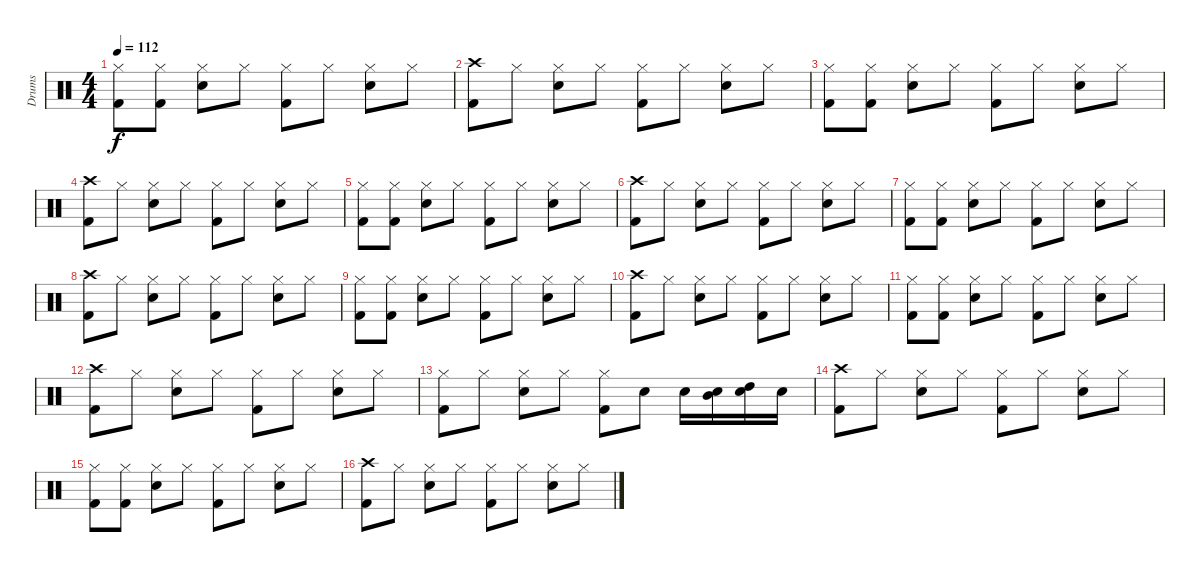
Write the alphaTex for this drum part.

\track ("Drums" "Drums") {instrument percussion}
\staff {score}
\articulation defaults
\ts (4 4)
\tempo 112
\clef neutral
\ks c
("Hi-Hat (closed)" "Kick (hit) 2").8{dy f} ("Hi-Hat (closed)" "Kick (hit) 2").8 ("Hi-Hat (closed)" "Electric Snare (hit)").8 "Hi-Hat (closed)".8 ("Hi-Hat (closed)" "Kick (hit) 2").8 "Hi-Hat (closed)".8 ("Hi-Hat (closed)" "Electric Snare (hit)").8 "Hi-Hat (closed)".8 |
("Crash high (hit)" "Kick (hit) 2").8 "Hi-Hat (closed)".8 ("Hi-Hat (closed)" "Electric Snare (hit)").8 "Hi-Hat (closed)".8 ("Hi-Hat (closed)" "Kick (hit) 2").8 "Hi-Hat (closed)".8 ("Hi-Hat (closed)" "Electric Snare (hit)").8 "Hi-Hat (closed)".8 |
("Hi-Hat (closed)" "Kick (hit) 2").8 ("Hi-Hat (closed)" "Kick (hit) 2").8 ("Hi-Hat (closed)" "Electric Snare (hit)").8 "Hi-Hat (closed)".8 ("Hi-Hat (closed)" "Kick (hit) 2").8 "Hi-Hat (closed)".8 ("Hi-Hat (closed)" "Electric Snare (hit)").8 "Hi-Hat (closed)".8 |
("Crash high (hit)" "Kick (hit) 2").8 "Hi-Hat (closed)".8 ("Hi-Hat (closed)" "Electric Snare (hit)").8 "Hi-Hat (closed)".8 ("Hi-Hat (closed)" "Kick (hit) 2").8 "Hi-Hat (closed)".8 ("Hi-Hat (closed)" "Electric Snare (hit)").8 "Hi-Hat (closed)".8 |
("Hi-Hat (closed)" "Kick (hit) 2").8 ("Hi-Hat (closed)" "Kick (hit) 2").8 ("Hi-Hat (closed)" "Electric Snare (hit)").8 "Hi-Hat (closed)".8 ("Hi-Hat (closed)" "Kick (hit) 2").8 "Hi-Hat (closed)".8 ("Hi-Hat (closed)" "Electric Snare (hit)").8 "Hi-Hat (closed)".8 |
("Crash high (hit)" "Kick (hit) 2").8 "Hi-Hat (closed)".8 ("Hi-Hat (closed)" "Electric Snare (hit)").8 "Hi-Hat (closed)".8 ("Hi-Hat (closed)" "Kick (hit) 2").8 "Hi-Hat (closed)".8 ("Hi-Hat (closed)" "Electric Snare (hit)").8 "Hi-Hat (closed)".8 |
("Hi-Hat (closed)" "Kick (hit) 2").8 ("Hi-Hat (closed)" "Kick (hit) 2").8 ("Hi-Hat (closed)" "Electric Snare (hit)").8 "Hi-Hat (closed)".8 ("Hi-Hat (closed)" "Kick (hit) 2").8 "Hi-Hat (closed)".8 ("Hi-Hat (closed)" "Electric Snare (hit)").8 "Hi-Hat (closed)".8 |
("Crash high (hit)" "Kick (hit) 2").8 "Hi-Hat (closed)".8 ("Hi-Hat (closed)" "Electric Snare (hit)").8 "Hi-Hat (closed)".8 ("Hi-Hat (closed)" "Kick (hit) 2").8 "Hi-Hat (closed)".8 ("Hi-Hat (closed)" "Electric Snare (hit)").8 "Hi-Hat (closed)".8 |
("Hi-Hat (closed)" "Kick (hit) 2").8 ("Hi-Hat (closed)" "Kick (hit) 2").8 ("Hi-Hat (closed)" "Electric Snare (hit)").8 "Hi-Hat (closed)".8 ("Hi-Hat (closed)" "Kick (hit) 2").8 "Hi-Hat (closed)".8 ("Hi-Hat (closed)" "Electric Snare (hit)").8 "Hi-Hat (closed)".8 |
("Crash high (hit)" "Kick (hit) 2").8 "Hi-Hat (closed)".8 ("Hi-Hat (closed)" "Electric Snare (hit)").8 "Hi-Hat (closed)".8 ("Hi-Hat (closed)" "Kick (hit) 2").8 "Hi-Hat (closed)".8 ("Hi-Hat (closed)" "Electric Snare (hit)").8 "Hi-Hat (closed)".8 |
("Hi-Hat (closed)" "Kick (hit) 2").8 ("Hi-Hat (closed)" "Kick (hit) 2").8 ("Hi-Hat (closed)" "Electric Snare (hit)").8 "Hi-Hat (closed)".8 ("Hi-Hat (closed)" "Kick (hit) 2").8 "Hi-Hat (closed)".8 ("Hi-Hat (closed)" "Electric Snare (hit)").8 "Hi-Hat (closed)".8 |
("Crash high (hit)" "Kick (hit) 2").8 "Hi-Hat (closed)".8 ("Hi-Hat (closed)" "Electric Snare (hit)").8 "Hi-Hat (closed)".8 ("Hi-Hat (closed)" "Kick (hit) 2").8 "Hi-Hat (closed)".8 ("Hi-Hat (closed)" "Electric Snare (hit)").8 "Hi-Hat (closed)".8 |
("Hi-Hat (closed)" "Kick (hit) 2").8 "Hi-Hat (closed)".8 ("Hi-Hat (closed)" "Electric Snare (hit)").8 "Hi-Hat (closed)".8 ("Hi-Hat (closed)" "Kick (hit) 2").8 "Electric Snare (hit)".8 "Electric Snare (hit)".16 ("Mid Tom (hit)" "Electric Snare (hit)").16 ("High Tom (hit)" "Electric Snare (hit)").16 "Electric Snare (hit)".16 |
("Crash high (hit)" "Kick (hit) 2").8 "Hi-Hat (closed)".8 ("Hi-Hat (closed)" "Electric Snare (hit)").8 "Hi-Hat (closed)".8 ("Hi-Hat (closed)" "Kick (hit) 2").8 "Hi-Hat (closed)".8 ("Hi-Hat (closed)" "Electric Snare (hit)").8 "Hi-Hat (closed)".8 |
("Hi-Hat (closed)" "Kick (hit) 2").8{volume 7} ("Hi-Hat (closed)" "Kick (hit) 2").8 ("Hi-Hat (closed)" "Electric Snare (hit)").8 "Hi-Hat (closed)".8 ("Hi-Hat (closed)" "Kick (hit) 2").8 "Hi-Hat (closed)".8 ("Hi-Hat (closed)" "Electric Snare (hit)").8 "Hi-Hat (closed)".8 |
("Crash high (hit)" "Kick (hit) 2").8 "Hi-Hat (closed)".8 ("Hi-Hat (closed)" "Electric Snare (hit)").8 "Hi-Hat (closed)".8 ("Hi-Hat (closed)" "Kick (hit) 2").8 "Hi-Hat (closed)".8 ("Hi-Hat (closed)" "Electric Snare (hit)").8 "Hi-Hat (closed)".8
